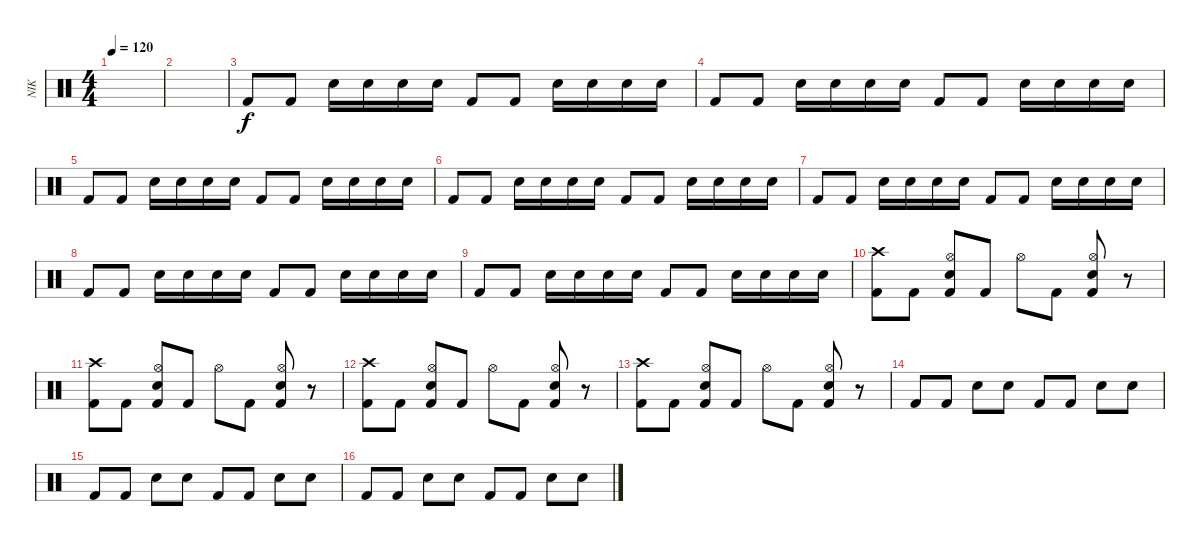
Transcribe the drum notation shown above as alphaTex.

\track ("NIK" "NIK") {instrument percussion}
\staff {score}
\articulation defaults
\ts (4 4)
\tempo 120
\clef neutral
\ks c
|
|
"Kick (hit) 2".8{dy f} "Kick (hit) 2".8 "Electric Snare (hit)".16 "Electric Snare (hit)".16 "Electric Snare (hit)".16 "Electric Snare (hit)".16 "Kick (hit) 2".8 "Kick (hit) 2".8 "Electric Snare (hit)".16 "Electric Snare (hit)".16 "Electric Snare (hit)".16 "Electric Snare (hit)".16 |
"Kick (hit) 2".8 "Kick (hit) 2".8 "Electric Snare (hit)".16 "Electric Snare (hit)".16 "Electric Snare (hit)".16 "Electric Snare (hit)".16 "Kick (hit) 2".8 "Kick (hit) 2".8 "Electric Snare (hit)".16 "Electric Snare (hit)".16 "Electric Snare (hit)".16 "Electric Snare (hit)".16 |
"Kick (hit) 2".8 "Kick (hit) 2".8 "Electric Snare (hit)".16 "Electric Snare (hit)".16 "Electric Snare (hit)".16 "Electric Snare (hit)".16 "Kick (hit) 2".8 "Kick (hit) 2".8 "Electric Snare (hit)".16 "Electric Snare (hit)".16 "Electric Snare (hit)".16 "Electric Snare (hit)".16 |
"Kick (hit) 2".8 "Kick (hit) 2".8 "Electric Snare (hit)".16 "Electric Snare (hit)".16 "Electric Snare (hit)".16 "Electric Snare (hit)".16 "Kick (hit) 2".8 "Kick (hit) 2".8 "Electric Snare (hit)".16 "Electric Snare (hit)".16 "Electric Snare (hit)".16 "Electric Snare (hit)".16 |
"Kick (hit) 2".8 "Kick (hit) 2".8 "Electric Snare (hit)".16 "Electric Snare (hit)".16 "Electric Snare (hit)".16 "Electric Snare (hit)".16 "Kick (hit) 2".8 "Kick (hit) 2".8 "Electric Snare (hit)".16 "Electric Snare (hit)".16 "Electric Snare (hit)".16 "Electric Snare (hit)".16 |
"Kick (hit) 2".8 "Kick (hit) 2".8 "Electric Snare (hit)".16 "Electric Snare (hit)".16 "Electric Snare (hit)".16 "Electric Snare (hit)".16 "Kick (hit) 2".8 "Kick (hit) 2".8 "Electric Snare (hit)".16 "Electric Snare (hit)".16 "Electric Snare (hit)".16 "Electric Snare (hit)".16 |
"Kick (hit) 2".8 "Kick (hit) 2".8 "Electric Snare (hit)".16 "Electric Snare (hit)".16 "Electric Snare (hit)".16 "Electric Snare (hit)".16 "Kick (hit) 2".8 "Kick (hit) 2".8 "Electric Snare (hit)".16 "Electric Snare (hit)".16 "Electric Snare (hit)".16 "Electric Snare (hit)".16 |
("Crash high (hit)" "Kick (hit) 2").8 "Kick (hit) 2".8 ("Kick (hit) 2" "Hi-Hat (open)" "Snare (hit) 2").8 "Kick (hit) 2".8 "Hi-Hat (open)".8 "Kick (hit) 2".8 ("Kick (hit) 2" "Hi-Hat (open)" "Snare (hit) 2").8 r.8 |
("Crash high (hit)" "Kick (hit) 2").8 "Kick (hit) 2".8 ("Kick (hit) 2" "Hi-Hat (open)" "Snare (hit) 2").8 "Kick (hit) 2".8 "Hi-Hat (open)".8 "Kick (hit) 2".8 ("Kick (hit) 2" "Hi-Hat (open)" "Snare (hit) 2").8 r.8 |
("Crash high (hit)" "Kick (hit) 2").8 "Kick (hit) 2".8 ("Kick (hit) 2" "Hi-Hat (open)" "Snare (hit) 2").8 "Kick (hit) 2".8 "Hi-Hat (open)".8 "Kick (hit) 2".8 ("Kick (hit) 2" "Hi-Hat (open)" "Snare (hit) 2").8 r.8 |
("Crash high (hit)" "Kick (hit) 2").8 "Kick (hit) 2".8 ("Kick (hit) 2" "Hi-Hat (open)" "Snare (hit) 2").8 "Kick (hit) 2".8 "Hi-Hat (open)".8 "Kick (hit) 2".8 ("Kick (hit) 2" "Hi-Hat (open)" "Snare (hit) 2").8 r.8 |
"Kick (hit) 2".8 "Kick (hit) 2".8 "Electric Snare (hit)".8 "Electric Snare (hit)".8 "Kick (hit) 2".8 "Kick (hit) 2".8 "Electric Snare (hit)".8 "Electric Snare (hit)".8 |
"Kick (hit) 2".8 "Kick (hit) 2".8 "Electric Snare (hit)".8 "Electric Snare (hit)".8 "Kick (hit) 2".8 "Kick (hit) 2".8 "Electric Snare (hit)".8 "Electric Snare (hit)".8 |
"Kick (hit) 2".8 "Kick (hit) 2".8 "Electric Snare (hit)".8 "Electric Snare (hit)".8 "Kick (hit) 2".8 "Kick (hit) 2".8 "Electric Snare (hit)".8 "Electric Snare (hit)".8
